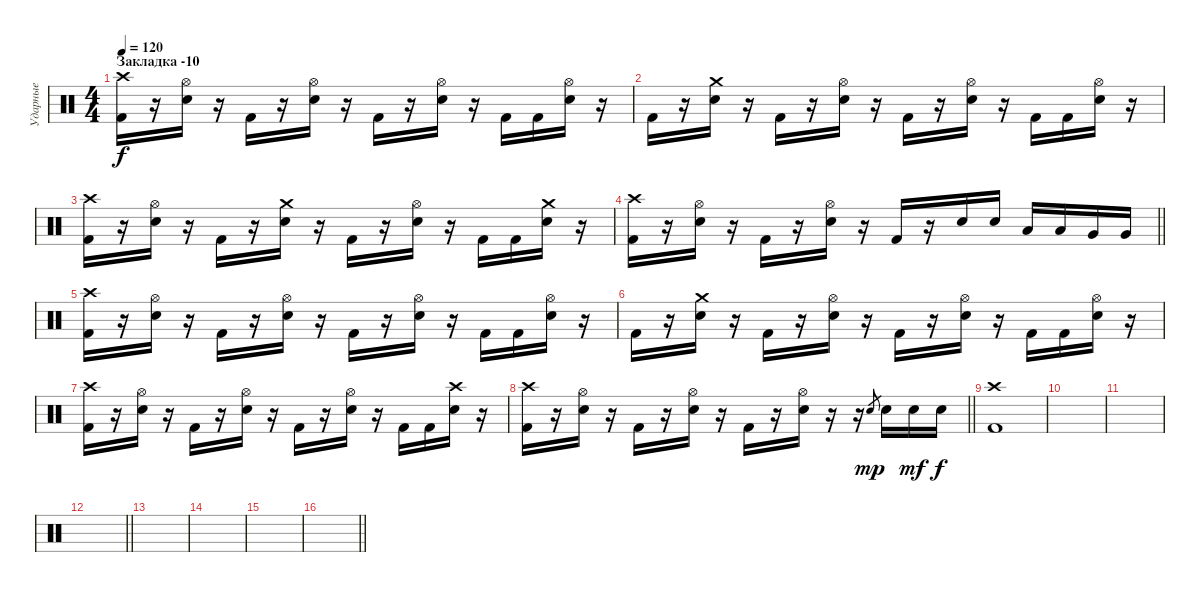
\track ("Ударные" "Ударные") {instrument percussion}
\staff {score}
\articulation defaults
\ts (4 4)
\section ("" "Закладка -10")
\tempo 120
\clef neutral
\ks c
("Crash high (hit)" "Kick (hit) 2").16{dy f} r.16 ("Hi-Hat (open)" "Electric Snare (hit)").16 r.16 "Kick (hit) 2".16 r.16 ("Hi-Hat (open)" "Electric Snare (hit)").16 r.16 "Kick (hit) 2".16 r.16 ("Hi-Hat (open)" "Electric Snare (hit)").16 r.16 "Kick (hit) 2".16 "Kick (hit) 2".16 ("Hi-Hat (open)" "Electric Snare (hit)").16 r.16 |
"Kick (hit) 2".16 r.16 ("Crash medium (hit)" "Electric Snare (hit)").16 r.16 "Kick (hit) 2".16 r.16 ("Hi-Hat (open)" "Electric Snare (hit)").16 r.16 "Kick (hit) 2".16 r.16 ("Hi-Hat (open)" "Electric Snare (hit)").16 r.16 "Kick (hit) 2".16 "Kick (hit) 2".16 ("Hi-Hat (open)" "Electric Snare (hit)").16 r.16 |
("Crash high (hit)" "Kick (hit) 2").16 r.16 ("Hi-Hat (open)" "Electric Snare (hit)").16 r.16 "Kick (hit) 2".16 r.16 ("Crash medium (hit)" "Electric Snare (hit)").16 r.16 "Kick (hit) 2".16 r.16 ("Hi-Hat (open)" "Electric Snare (hit)").16 r.16 "Kick (hit) 2".16 "Kick (hit) 2".16 ("Crash medium (hit)" "Electric Snare (hit)").16 r.16 |
\barLineRight lightlight
("Crash high (hit)" "Kick (hit) 2").16 r.16 ("Hi-Hat (open)" "Electric Snare (hit)").16 r.16 "Kick (hit) 2".16 r.16 ("Hi-Hat (open)" "Electric Snare (hit)").16 r.16 "Kick (hit) 2".16 r.16 "Electric Snare (hit)".16 "Electric Snare (hit)".16 "Low Tom (hit)".16 "Low Tom (hit)".16 "Very Low Tom (hit)".16 "Very Low Tom (hit)".16 |
("Crash high (hit)" "Kick (hit) 2").16 r.16 ("Hi-Hat (open)" "Electric Snare (hit)").16 r.16 "Kick (hit) 2".16 r.16 ("Hi-Hat (open)" "Electric Snare (hit)").16 r.16 "Kick (hit) 2".16 r.16 ("Hi-Hat (open)" "Electric Snare (hit)").16 r.16 "Kick (hit) 2".16 "Kick (hit) 2".16 ("Hi-Hat (open)" "Electric Snare (hit)").16 r.16 |
"Kick (hit) 2".16 r.16 ("Crash medium (hit)" "Electric Snare (hit)").16 r.16 "Kick (hit) 2".16 r.16 ("Hi-Hat (open)" "Electric Snare (hit)").16 r.16 "Kick (hit) 2".16 r.16 ("Hi-Hat (open)" "Electric Snare (hit)").16 r.16 "Kick (hit) 2".16 "Kick (hit) 2".16 ("Hi-Hat (open)" "Electric Snare (hit)").16 r.16 |
("Crash high (hit)" "Kick (hit) 2").16 r.16 ("Hi-Hat (open)" "Electric Snare (hit)").16 r.16 "Kick (hit) 2".16 r.16 ("Hi-Hat (open)" "Electric Snare (hit)").16 r.16 "Kick (hit) 2".16 r.16 ("Hi-Hat (open)" "Electric Snare (hit)").16 r.16 "Kick (hit) 2".16 "Kick (hit) 2".16 ("Crash high (hit)" "Electric Snare (hit)").16 r.16 |
\barLineRight lightlight
("Crash high (hit)" "Kick (hit) 2").16 r.16 ("Hi-Hat (open)" "Electric Snare (hit)").16 r.16 "Kick (hit) 2".16 r.16 ("Hi-Hat (open)" "Electric Snare (hit)").16 r.16 "Kick (hit) 2".16 r.16 ("Hi-Hat (open)" "Electric Snare (hit)").16 r.16 r.16 "Electric Snare (hit)".8{gr dy mp} "Electric Snare (hit)".16 "Electric Snare (hit)".16{dy mf} "Electric Snare (hit)".16{dy f} |
("Crash high (hit)" "Kick (hit) 2").1 |
|
|
\barLineRight lightlight
|
|
|
|
\barLineRight lightlight
